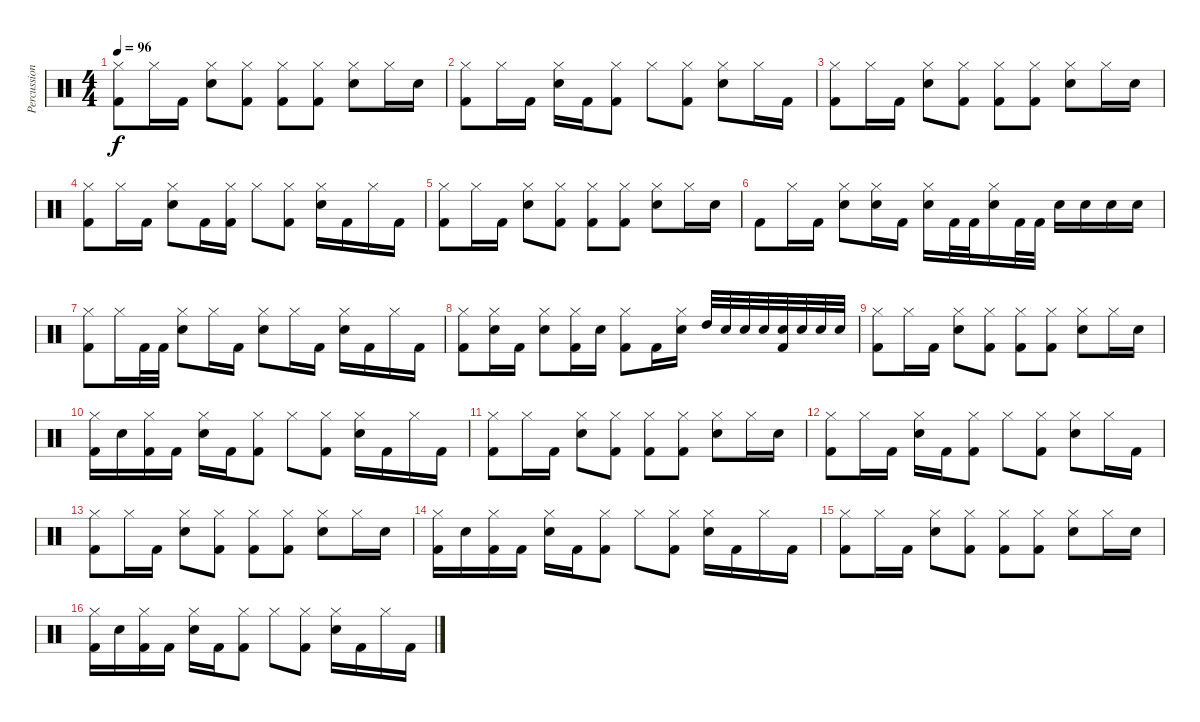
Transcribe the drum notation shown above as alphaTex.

\track ("Percussions" "Percussion") {instrument percussion}
\staff {score}
\articulation defaults
\ts (4 4)
\tempo 96
\clef neutral
\ks c
("Kick (hit) 2" "Hi-Hat (closed)").8{dy f} "Hi-Hat (closed)".16 "Kick (hit) 2".16 ("Hi-Hat (closed)" "Snare (hit) 2").8 ("Kick (hit) 2" "Hi-Hat (closed)").8 ("Kick (hit) 2" "Hi-Hat (closed)").8 ("Hi-Hat (closed)" "Kick (hit) 2").8 ("Hi-Hat (closed)" "Snare (hit) 2").8 "Hi-Hat (closed)".16 "Snare (hit) 2".16 |
("Hi-Hat (closed)" "Kick (hit) 2").8 "Hi-Hat (closed)".16 "Kick (hit) 2".16 ("Hi-Hat (closed)" "Snare (hit) 2").16 "Kick (hit) 2".16 ("Hi-Hat (closed)" "Kick (hit) 2").8 "Hi-Hat (closed)".8 ("Hi-Hat (closed)" "Kick (hit) 2").8 ("Hi-Hat (closed)" "Snare (hit) 2").8 "Hi-Hat (closed)".16 "Kick (hit) 2".16 |
("Kick (hit) 2" "Hi-Hat (closed)").8 "Hi-Hat (closed)".16 "Kick (hit) 2".16 ("Hi-Hat (closed)" "Snare (hit) 2").8 ("Kick (hit) 2" "Hi-Hat (closed)").8 ("Kick (hit) 2" "Hi-Hat (closed)").8 ("Hi-Hat (closed)" "Kick (hit) 2").8 ("Hi-Hat (closed)" "Snare (hit) 2").8 "Hi-Hat (closed)".16 "Snare (hit) 2".16 |
("Hi-Hat (closed)" "Kick (hit) 2").8 "Hi-Hat (closed)".16 "Kick (hit) 2".16 ("Hi-Hat (closed)" "Snare (hit) 2").8 "Kick (hit) 2".16 ("Hi-Hat (closed)" "Kick (hit) 2").16 "Hi-Hat (closed)".8 ("Hi-Hat (closed)" "Kick (hit) 2").8 ("Hi-Hat (closed)" "Snare (hit) 2").16 "Kick (hit) 2".16 "Hi-Hat (closed)".16 "Kick (hit) 2".16 |
("Kick (hit) 2" "Hi-Hat (closed)").8 "Hi-Hat (closed)".16 "Kick (hit) 2".16 ("Hi-Hat (closed)" "Snare (hit) 2").8 ("Kick (hit) 2" "Hi-Hat (closed)").8 ("Kick (hit) 2" "Hi-Hat (closed)").8 ("Hi-Hat (closed)" "Kick (hit) 2").8 ("Hi-Hat (closed)" "Snare (hit) 2").8 "Hi-Hat (closed)".16 "Snare (hit) 2".16 |
"Kick (hit) 2".8 "Hi-Hat (closed)".16 "Kick (hit) 2".16 ("Hi-Hat (closed)" "Snare (hit) 2").8 ("Hi-Hat (closed)" "Snare (hit) 2").16 "Kick (hit) 2".16 ("Snare (hit) 2" "Hi-Hat (closed)").16 "Kick (hit) 2".32 "Kick (hit) 2".32 ("Snare (hit) 2" "Hi-Hat (closed)").16 "Kick (hit) 2".32 "Kick (hit) 2".32 "Snare (hit) 2".16 "Snare (hit) 2".16 "Snare (hit) 2".16 "Snare (hit) 2".16 |
("Hi-Hat (closed)" "Kick (hit) 2").8 "Hi-Hat (closed)".16 "Kick (hit) 2".32 "Kick (hit) 2".32 ("Hi-Hat (closed)" "Snare (hit) 2").8 "Hi-Hat (closed)".16 "Kick (hit) 2".16 ("Hi-Hat (closed)" "Snare (hit) 2").8 "Hi-Hat (closed)".16 "Kick (hit) 2".16 ("Hi-Hat (closed)" "Snare (hit) 2").16 "Kick (hit) 2".16 "Hi-Hat (closed)".16 "Kick (hit) 2".16 |
("Hi-Hat (closed)" "Kick (hit) 2").8 ("Hi-Hat (closed)" "Snare (hit) 2").16 "Kick (hit) 2".16 ("Hi-Hat (closed)" "Snare (hit) 2").8 ("Hi-Hat (closed)" "Kick (hit) 2").16 "Snare (hit) 2".16 ("Hi-Hat (closed)" "Kick (hit) 2").8 "Kick (hit) 2".16 ("Snare (hit) 2" "Hi-Hat (closed)").16 "High Tom (hit)".32 "Snare (hit) 2".32 "Snare (hit) 2".32 "Snare (hit) 2".32 ("Snare (hit) 2" "Kick (hit) 2").32 "Snare (hit) 2".32 "Snare (hit) 2".32 "Snare (hit) 2".32 |
("Kick (hit) 2" "Hi-Hat (closed)").8 "Hi-Hat (closed)".16 "Kick (hit) 2".16 ("Hi-Hat (closed)" "Snare (hit) 2").8 ("Kick (hit) 2" "Hi-Hat (closed)").8 ("Kick (hit) 2" "Hi-Hat (closed)").8 ("Hi-Hat (closed)" "Kick (hit) 2").8 ("Hi-Hat (closed)" "Snare (hit) 2").8 "Hi-Hat (closed)".16 "Snare (hit) 2".16 |
("Hi-Hat (closed)" "Kick (hit) 2").16 "Snare (hit) 2".16 ("Hi-Hat (closed)" "Kick (hit) 2").16 "Kick (hit) 2".16 ("Hi-Hat (closed)" "Snare (hit) 2").16 "Kick (hit) 2".16 ("Hi-Hat (closed)" "Kick (hit) 2").8 "Hi-Hat (closed)".8 ("Hi-Hat (closed)" "Kick (hit) 2").8 ("Hi-Hat (closed)" "Snare (hit) 2").16 "Kick (hit) 2".16 "Hi-Hat (closed)".16 "Kick (hit) 2".16 |
("Kick (hit) 2" "Hi-Hat (closed)").8 "Hi-Hat (closed)".16 "Kick (hit) 2".16 ("Hi-Hat (closed)" "Snare (hit) 2").8 ("Kick (hit) 2" "Hi-Hat (closed)").8 ("Kick (hit) 2" "Hi-Hat (closed)").8 ("Hi-Hat (closed)" "Kick (hit) 2").8 ("Hi-Hat (closed)" "Snare (hit) 2").8 "Hi-Hat (closed)".16 "Snare (hit) 2".16 |
("Hi-Hat (closed)" "Kick (hit) 2").8 "Hi-Hat (closed)".16 "Kick (hit) 2".16 ("Hi-Hat (closed)" "Snare (hit) 2").16 "Kick (hit) 2".16 ("Hi-Hat (closed)" "Kick (hit) 2").8 "Hi-Hat (closed)".8 ("Hi-Hat (closed)" "Kick (hit) 2").8 ("Hi-Hat (closed)" "Snare (hit) 2").8 "Hi-Hat (closed)".16 "Kick (hit) 2".16 |
("Kick (hit) 2" "Hi-Hat (closed)").8 "Hi-Hat (closed)".16 "Kick (hit) 2".16 ("Hi-Hat (closed)" "Snare (hit) 2").8 ("Kick (hit) 2" "Hi-Hat (closed)").8 ("Kick (hit) 2" "Hi-Hat (closed)").8 ("Hi-Hat (closed)" "Kick (hit) 2").8 ("Hi-Hat (closed)" "Snare (hit) 2").8 "Hi-Hat (closed)".16 "Snare (hit) 2".16 |
("Hi-Hat (closed)" "Kick (hit) 2").16 "Snare (hit) 2".16 ("Hi-Hat (closed)" "Kick (hit) 2").16 "Kick (hit) 2".16 ("Hi-Hat (closed)" "Snare (hit) 2").16 "Kick (hit) 2".16 ("Hi-Hat (closed)" "Kick (hit) 2").8 "Hi-Hat (closed)".8 ("Hi-Hat (closed)" "Kick (hit) 2").8 ("Hi-Hat (closed)" "Snare (hit) 2").16 "Kick (hit) 2".16 "Hi-Hat (closed)".16 "Kick (hit) 2".16 |
("Kick (hit) 2" "Hi-Hat (closed)").8 "Hi-Hat (closed)".16 "Kick (hit) 2".16 ("Hi-Hat (closed)" "Snare (hit) 2").8 ("Kick (hit) 2" "Hi-Hat (closed)").8 ("Kick (hit) 2" "Hi-Hat (closed)").8 ("Hi-Hat (closed)" "Kick (hit) 2").8 ("Hi-Hat (closed)" "Snare (hit) 2").8 "Hi-Hat (closed)".16 "Snare (hit) 2".16 |
("Hi-Hat (closed)" "Kick (hit) 2").16 "Snare (hit) 2".16 ("Hi-Hat (closed)" "Kick (hit) 2").16 "Kick (hit) 2".16 ("Hi-Hat (closed)" "Snare (hit) 2").16 "Kick (hit) 2".16 ("Hi-Hat (closed)" "Kick (hit) 2").8 "Hi-Hat (closed)".8 ("Hi-Hat (closed)" "Kick (hit) 2").8 ("Hi-Hat (closed)" "Snare (hit) 2").16 "Kick (hit) 2".16 "Hi-Hat (closed)".16 "Kick (hit) 2".16
